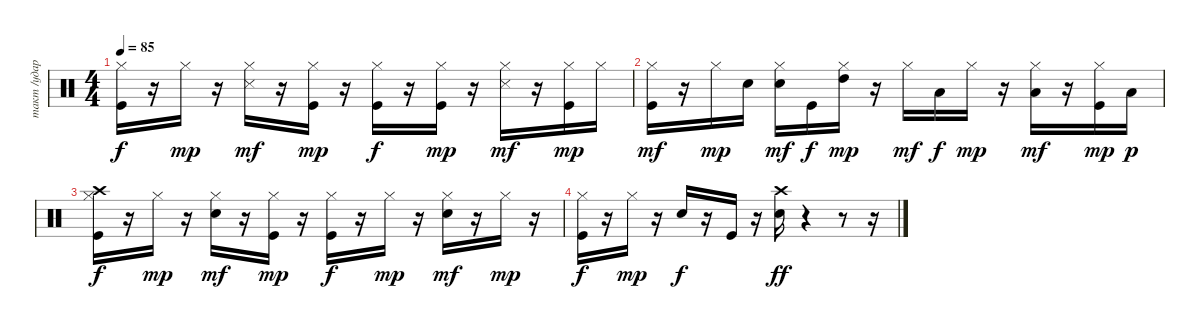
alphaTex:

\track ("такт /ударные/" "такт /удар") {instrument percussion}
\staff {score}
\articulation defaults
\ts (4 4)
\tempo 85
\clef neutral
\ks c
("Kick (hit)" "Hi-Hat (closed)").16{dy f} r.16 "Hi-Hat (closed)".16{dy mp} r.16 ("Hi-Hat (closed)" "Snare (side stick) 3").16{dy mf} r.16 ("Kick (hit)" "Hi-Hat (closed)").16{dy mp} r.16 ("Kick (hit)" "Hi-Hat (closed)").16{dy f} r.16 ("Kick (hit)" "Hi-Hat (closed)").16{dy mp} r.16 ("Hi-Hat (closed)" "Snare (side stick) 3").16{dy mf} r.16 ("Kick (hit)" "Hi-Hat (closed)").16{dy mp} "Hi-Hat (closed)".16 |
("Kick (hit)" "Hi-Hat (closed)").16{dy mf} r.16 "Hi-Hat (closed)".16{dy mp} "Snare (hit) 2".16 ("Snare (hit) 2" "Hi-Hat (closed)").16{dy mf} "Kick (hit)".16{dy f} ("Hi-Hat (closed)" "High Tom (hit)").16{dy mp} r.16 "Hi-Hat (closed)".16{dy mf} "Low Tom (hit)".16{dy f} "Hi-Hat (closed)".16{dy mp} r.16 ("Hi-Hat (closed)" "Low Floor Tom (hit)").16{dy mf} r.16 ("Kick (hit)" "Hi-Hat (closed)").16{dy mp} "Low Floor Tom (hit)".16{dy p} |
("Kick (hit)" "Hi-Hat (closed)" "Crash high (hit)").16{dy f} r.16 "Hi-Hat (closed)".16{dy mp} r.16 ("Snare (hit) 2" "Hi-Hat (closed)").16{dy mf} r.16 ("Kick (hit)" "Hi-Hat (closed)").16{dy mp} r.16 ("Kick (hit)" "Hi-Hat (closed)").16{dy f} r.16 "Hi-Hat (closed)".16{dy mp} r.16 ("Snare (hit) 2" "Hi-Hat (closed)").16{dy mf} r.16 "Hi-Hat (closed)".16{dy mp} r.16 |
("Kick (hit)" "Hi-Hat (closed)").16{dy f} r.16 "Hi-Hat (closed)".16{dy mp} r.16 "Snare (hit) 2".16{dy f} r.16 "Kick (hit)".16 r.16 ("Snare (hit) 2" "Crash high (hit)").16{dy ff} r.4 r.8 r.16
